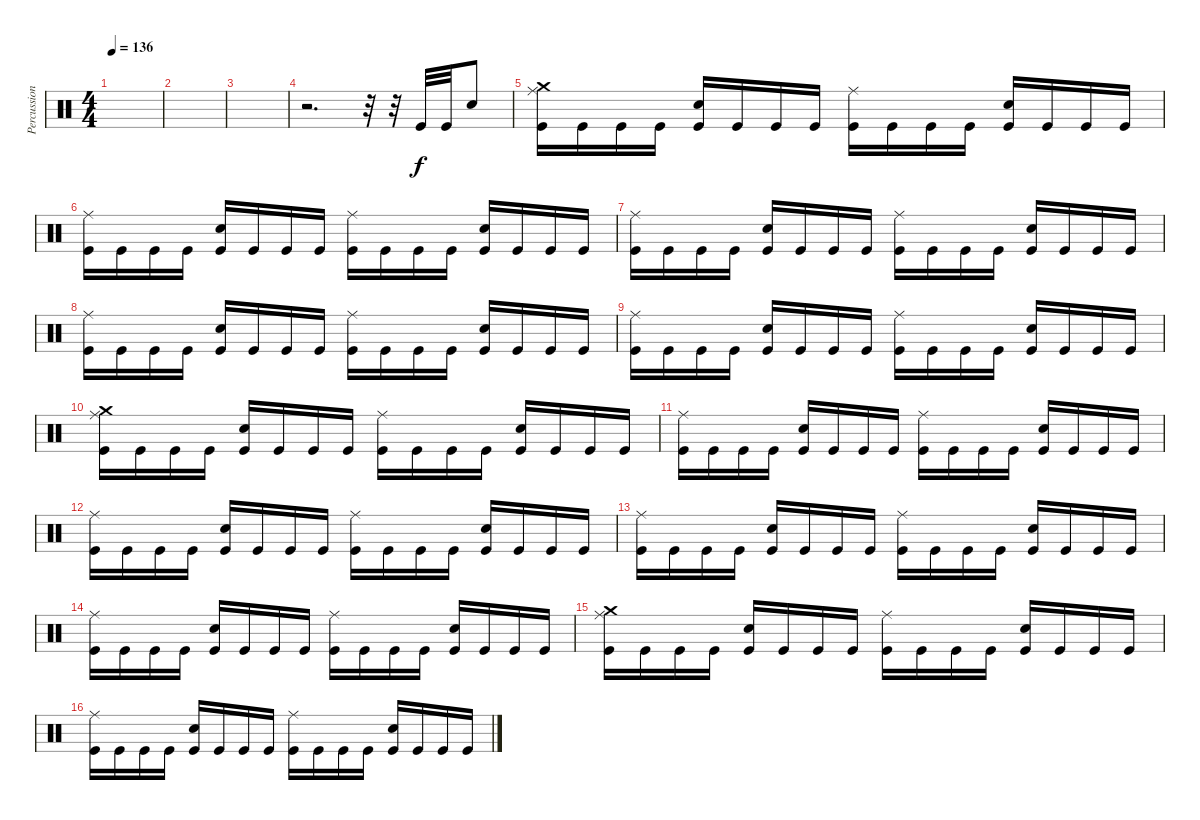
\track ("Percussion IV" "Percussion") {instrument percussion}
\staff {score}
\articulation defaults
\ts (4 4)
\tempo 136
\clef neutral
\ks c
|
|
|
r.2{d} r.32 r.32 "Kick (hit)".32 "Kick (hit)".32 "Electric Snare (hit)".8 |
("Crash medium (hit)" "Ride (middle)" "Kick (hit)").16 "Kick (hit)".16 "Kick (hit)".16 "Kick (hit)".16 ("Electric Snare (hit)" "Kick (hit)").16 "Kick (hit)".16 "Kick (hit)".16 "Kick (hit)".16 ("Ride (middle)" "Kick (hit)").16 "Kick (hit)".16 "Kick (hit)".16 "Kick (hit)".16 ("Electric Snare (hit)" "Kick (hit)").16 "Kick (hit)".16 "Kick (hit)".16 "Kick (hit)".16 |
("Ride (middle)" "Kick (hit)").16 "Kick (hit)".16 "Kick (hit)".16 "Kick (hit)".16 ("Electric Snare (hit)" "Kick (hit)").16 "Kick (hit)".16 "Kick (hit)".16 "Kick (hit)".16 ("Ride (middle)" "Kick (hit)").16 "Kick (hit)".16 "Kick (hit)".16 "Kick (hit)".16 ("Electric Snare (hit)" "Kick (hit)").16 "Kick (hit)".16 "Kick (hit)".16 "Kick (hit)".16 |
("Ride (middle)" "Kick (hit)").16 "Kick (hit)".16 "Kick (hit)".16 "Kick (hit)".16 ("Electric Snare (hit)" "Kick (hit)").16 "Kick (hit)".16 "Kick (hit)".16 "Kick (hit)".16 ("Ride (middle)" "Kick (hit)").16 "Kick (hit)".16 "Kick (hit)".16 "Kick (hit)".16 ("Electric Snare (hit)" "Kick (hit)").16 "Kick (hit)".16 "Kick (hit)".16 "Kick (hit)".16 |
("Ride (middle)" "Kick (hit)").16 "Kick (hit)".16 "Kick (hit)".16 "Kick (hit)".16 ("Electric Snare (hit)" "Kick (hit)").16 "Kick (hit)".16 "Kick (hit)".16 "Kick (hit)".16 ("Ride (middle)" "Kick (hit)").16 "Kick (hit)".16 "Kick (hit)".16 "Kick (hit)".16 ("Electric Snare (hit)" "Kick (hit)").16 "Kick (hit)".16 "Kick (hit)".16 "Kick (hit)".16 |
("Ride (middle)" "Kick (hit)").16 "Kick (hit)".16 "Kick (hit)".16 "Kick (hit)".16 ("Electric Snare (hit)" "Kick (hit)").16 "Kick (hit)".16 "Kick (hit)".16 "Kick (hit)".16 ("Ride (middle)" "Kick (hit)").16 "Kick (hit)".16 "Kick (hit)".16 "Kick (hit)".16 ("Electric Snare (hit)" "Kick (hit)").16 "Kick (hit)".16 "Kick (hit)".16 "Kick (hit)".16 |
("Crash medium (hit)" "Ride (middle)" "Kick (hit)").16 "Kick (hit)".16 "Kick (hit)".16 "Kick (hit)".16 ("Electric Snare (hit)" "Kick (hit)").16 "Kick (hit)".16 "Kick (hit)".16 "Kick (hit)".16 ("Ride (middle)" "Kick (hit)").16 "Kick (hit)".16 "Kick (hit)".16 "Kick (hit)".16 ("Electric Snare (hit)" "Kick (hit)").16 "Kick (hit)".16 "Kick (hit)".16 "Kick (hit)".16 |
("Ride (middle)" "Kick (hit)").16 "Kick (hit)".16 "Kick (hit)".16 "Kick (hit)".16 ("Electric Snare (hit)" "Kick (hit)").16 "Kick (hit)".16 "Kick (hit)".16 "Kick (hit)".16 ("Ride (middle)" "Kick (hit)").16 "Kick (hit)".16 "Kick (hit)".16 "Kick (hit)".16 ("Electric Snare (hit)" "Kick (hit)").16 "Kick (hit)".16 "Kick (hit)".16 "Kick (hit)".16 |
("Ride (middle)" "Kick (hit)").16 "Kick (hit)".16 "Kick (hit)".16 "Kick (hit)".16 ("Electric Snare (hit)" "Kick (hit)").16 "Kick (hit)".16 "Kick (hit)".16 "Kick (hit)".16 ("Ride (middle)" "Kick (hit)").16 "Kick (hit)".16 "Kick (hit)".16 "Kick (hit)".16 ("Electric Snare (hit)" "Kick (hit)").16 "Kick (hit)".16 "Kick (hit)".16 "Kick (hit)".16 |
("Ride (middle)" "Kick (hit)").16 "Kick (hit)".16 "Kick (hit)".16 "Kick (hit)".16 ("Electric Snare (hit)" "Kick (hit)").16 "Kick (hit)".16 "Kick (hit)".16 "Kick (hit)".16 ("Ride (middle)" "Kick (hit)").16 "Kick (hit)".16 "Kick (hit)".16 "Kick (hit)".16 ("Electric Snare (hit)" "Kick (hit)").16 "Kick (hit)".16 "Kick (hit)".16 "Kick (hit)".16 |
("Ride (middle)" "Kick (hit)").16 "Kick (hit)".16 "Kick (hit)".16 "Kick (hit)".16 ("Electric Snare (hit)" "Kick (hit)").16 "Kick (hit)".16 "Kick (hit)".16 "Kick (hit)".16 ("Ride (middle)" "Kick (hit)").16 "Kick (hit)".16 "Kick (hit)".16 "Kick (hit)".16 ("Electric Snare (hit)" "Kick (hit)").16 "Kick (hit)".16 "Kick (hit)".16 "Kick (hit)".16 |
("Crash medium (hit)" "Ride (middle)" "Kick (hit)").16 "Kick (hit)".16 "Kick (hit)".16 "Kick (hit)".16 ("Electric Snare (hit)" "Kick (hit)").16 "Kick (hit)".16 "Kick (hit)".16 "Kick (hit)".16 ("Ride (middle)" "Kick (hit)").16 "Kick (hit)".16 "Kick (hit)".16 "Kick (hit)".16 ("Electric Snare (hit)" "Kick (hit)").16 "Kick (hit)".16 "Kick (hit)".16 "Kick (hit)".16 |
("Ride (middle)" "Kick (hit)").16 "Kick (hit)".16 "Kick (hit)".16 "Kick (hit)".16 ("Electric Snare (hit)" "Kick (hit)").16 "Kick (hit)".16 "Kick (hit)".16 "Kick (hit)".16 ("Ride (middle)" "Kick (hit)").16 "Kick (hit)".16 "Kick (hit)".16 "Kick (hit)".16 ("Electric Snare (hit)" "Kick (hit)").16 "Kick (hit)".16 "Kick (hit)".16 "Kick (hit)".16
